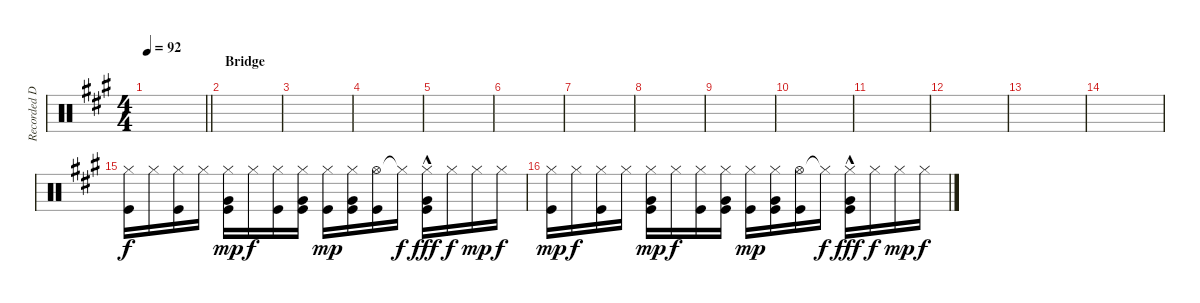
\track ("Recorded Durms" "Recorded D") {instrument percussion}
\staff {score}
\articulation defaults
\ts (4 4)
\tempo 92
\clef neutral
\barLineRight lightlight
\ks a
|
\section ("" "Bridge")
|
|
|
|
|
|
|
|
|
|
|
|
|
("Hi-Hat (closed)" "Kick (hit)").16{volume 2 balance 0} "Hi-Hat (closed)".16{dy f volume 3 balance 0} ("Hi-Hat (closed)" "Kick (hit)").16{volume 4 balance 0} "Hi-Hat (closed)".16{volume 5 balance 0} ("Hi-Hat (closed)" "Very Low Tom (hit)" "Kick (hit)").16{dy mp volume 6 balance 0} "Hi-Hat (closed)".16{dy f} ("Hi-Hat (closed)" "Kick (hit)").16 ("Hi-Hat (closed)" "Very Low Tom (hit)" "Kick (hit)").16 ("Hi-Hat (closed)" "Kick (hit)").16{dy mp} ("Hi-Hat (closed)" "Very Low Tom (hit)" "Kick (hit)").16 ("Hi-Hat (open)" "Kick (hit)").16 "Hi-Hat (closed)"{t}.16{dy f} ("Hi-Hat (closed)" "Very Low Tom (hit)"{hac} "Kick (hit)").16{dy fff} "Hi-Hat (closed)".16{dy f} "Hi-Hat (closed)".16{dy mp} "Hi-Hat (closed)".16{dy f} |
("Hi-Hat (closed)" "Kick (hit)").16{dy mp} "Hi-Hat (closed)".16{dy f} ("Hi-Hat (closed)" "Kick (hit)").16 "Hi-Hat (closed)".16 ("Hi-Hat (closed)" "Very Low Tom (hit)" "Kick (hit)").16{dy mp} "Hi-Hat (closed)".16{dy f} ("Hi-Hat (closed)" "Kick (hit)").16 ("Hi-Hat (closed)" "Very Low Tom (hit)" "Kick (hit)").16 ("Hi-Hat (closed)" "Kick (hit)").16{dy mp} ("Hi-Hat (closed)" "Very Low Tom (hit)" "Kick (hit)").16 ("Hi-Hat (open)" "Kick (hit)").16 "Hi-Hat (closed)"{t}.16{dy f} ("Hi-Hat (closed)" "Very Low Tom (hit)"{hac} "Kick (hit)").16{dy fff} "Hi-Hat (closed)".16{dy f} "Hi-Hat (closed)".16{dy mp} "Hi-Hat (closed)".16{dy f}
